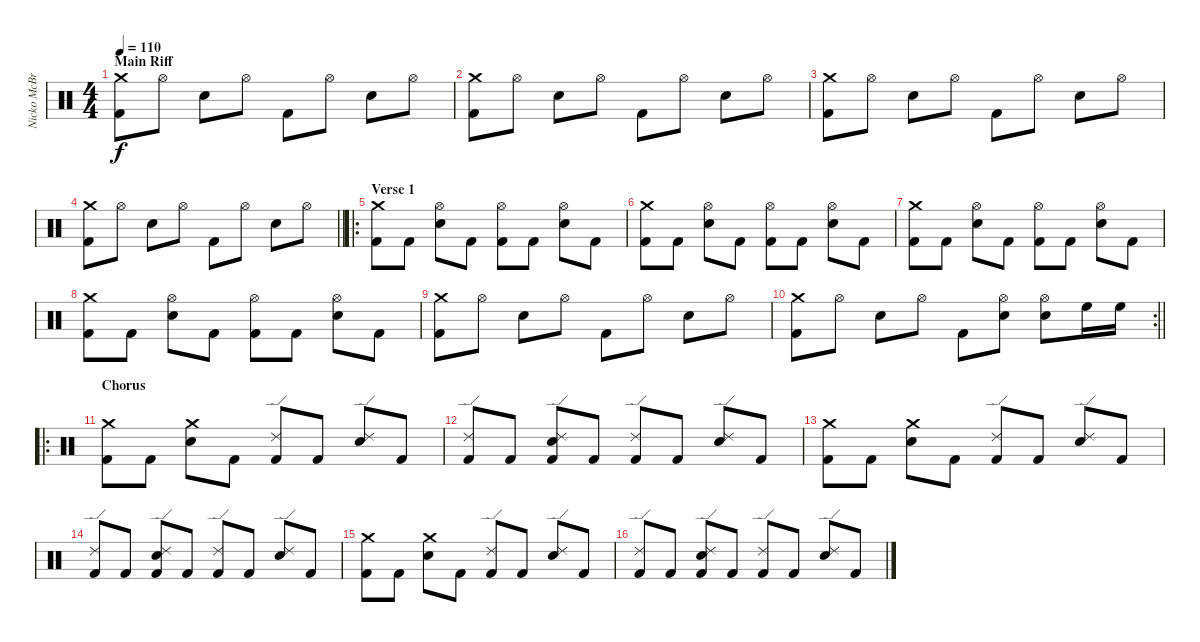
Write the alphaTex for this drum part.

\track ("Nicko McBrain" "Nicko McBr") {instrument percussion}
\staff {score}
\articulation defaults
\ts (4 4)
\section ("" "Main Riff")
\tempo 110
\clef neutral
\ks c
("Crash medium (hit)" "Kick (hit) 2").8{dy f} "Hi-Hat (open)".8 "Snare (hit) 2".8 "Hi-Hat (open)".8 "Kick (hit) 2".8 "Hi-Hat (open)".8 "Snare (hit) 2".8 "Hi-Hat (open)".8 |
("Crash medium (hit)" "Kick (hit) 2").8 "Hi-Hat (open)".8 "Snare (hit) 2".8 "Hi-Hat (open)".8 "Kick (hit) 2".8 "Hi-Hat (open)".8 "Snare (hit) 2".8 "Hi-Hat (open)".8 |
("Crash medium (hit)" "Kick (hit) 2").8 "Hi-Hat (open)".8 "Snare (hit) 2".8 "Hi-Hat (open)".8 "Kick (hit) 2".8 "Hi-Hat (open)".8 "Snare (hit) 2".8 "Hi-Hat (open)".8 |
\barLineRight lightlight
("Crash medium (hit)" "Kick (hit) 2").8 "Hi-Hat (open)".8 "Snare (hit) 2".8 "Hi-Hat (open)".8 "Kick (hit) 2".8 "Hi-Hat (open)".8 "Snare (hit) 2".8 "Hi-Hat (open)".8 |
\ro
\section ("" "Verse 1")
("Crash medium (hit)" "Kick (hit) 2").8 "Kick (hit) 2".8 ("Snare (hit) 2" "Hi-Hat (open)").8 "Kick (hit) 2".8 ("Hi-Hat (open)" "Kick (hit) 2").8 "Kick (hit) 2".8 ("Snare (hit) 2" "Hi-Hat (open)").8 "Kick (hit) 2".8 |
("Crash medium (hit)" "Kick (hit) 2").8 "Kick (hit) 2".8 ("Snare (hit) 2" "Hi-Hat (open)").8 "Kick (hit) 2".8 ("Hi-Hat (open)" "Kick (hit) 2").8 "Kick (hit) 2".8 ("Snare (hit) 2" "Hi-Hat (open)").8 "Kick (hit) 2".8 |
("Crash medium (hit)" "Kick (hit) 2").8 "Kick (hit) 2".8 ("Snare (hit) 2" "Hi-Hat (open)").8 "Kick (hit) 2".8 ("Hi-Hat (open)" "Kick (hit) 2").8 "Kick (hit) 2".8 ("Snare (hit) 2" "Hi-Hat (open)").8 "Kick (hit) 2".8 |
("Crash medium (hit)" "Kick (hit) 2").8 "Kick (hit) 2".8 ("Snare (hit) 2" "Hi-Hat (open)").8 "Kick (hit) 2".8 ("Hi-Hat (open)" "Kick (hit) 2").8 "Kick (hit) 2".8 ("Snare (hit) 2" "Hi-Hat (open)").8 "Kick (hit) 2".8 |
("Crash medium (hit)" "Kick (hit) 2").8 "Hi-Hat (open)".8 "Snare (hit) 2".8 "Hi-Hat (open)".8 "Kick (hit) 2".8 "Hi-Hat (open)".8 "Snare (hit) 2".8 "Hi-Hat (open)".8 |
\rc 2
\barLineRight lightlight
("Crash medium (hit)" "Kick (hit) 2").8 "Hi-Hat (open)".8 "Snare (hit) 2".8 "Hi-Hat (open)".8 "Kick (hit) 2".8 ("Snare (hit) 2" "Hi-Hat (open)").8 ("Snare (hit) 2" "Hi-Hat (open)").8 "High Floor Tom (hit)".16 "High Floor Tom (hit)".16 |
\ro
\section ("" "Chorus")
("Crash medium (hit)" "Kick (hit) 2").8 "Kick (hit) 2".8 ("Snare (hit) 2" "Crash medium (hit)").8 "Kick (hit) 2".8 ("Ride (edge) 2" "Kick (hit) 2").8 "Kick (hit) 2".8 ("Snare (hit) 2" "Ride (edge) 2").8 "Kick (hit) 2".8 |
("Ride (edge) 2" "Kick (hit) 2").8 "Kick (hit) 2".8 ("Snare (hit) 2" "Ride (edge) 2" "Kick (hit) 2").8 "Kick (hit) 2".8 ("Ride (edge) 2" "Kick (hit) 2").8 "Kick (hit) 2".8 ("Snare (hit) 2" "Ride (edge) 2").8 "Kick (hit) 2".8 |
("Crash medium (hit)" "Kick (hit) 2").8 "Kick (hit) 2".8 ("Snare (hit) 2" "Crash medium (hit)").8 "Kick (hit) 2".8 ("Ride (edge) 2" "Kick (hit) 2").8 "Kick (hit) 2".8 ("Snare (hit) 2" "Ride (edge) 2").8 "Kick (hit) 2".8 |
("Ride (edge) 2" "Kick (hit) 2").8 "Kick (hit) 2".8 ("Snare (hit) 2" "Ride (edge) 2" "Kick (hit) 2").8 "Kick (hit) 2".8 ("Ride (edge) 2" "Kick (hit) 2").8 "Kick (hit) 2".8 ("Snare (hit) 2" "Ride (edge) 2").8 "Kick (hit) 2".8 |
("Crash medium (hit)" "Kick (hit) 2").8 "Kick (hit) 2".8 ("Snare (hit) 2" "Crash medium (hit)").8 "Kick (hit) 2".8 ("Ride (edge) 2" "Kick (hit) 2").8 "Kick (hit) 2".8 ("Snare (hit) 2" "Ride (edge) 2").8 "Kick (hit) 2".8 |
("Ride (edge) 2" "Kick (hit) 2").8 "Kick (hit) 2".8 ("Snare (hit) 2" "Ride (edge) 2" "Kick (hit) 2").8 "Kick (hit) 2".8 ("Ride (edge) 2" "Kick (hit) 2").8 "Kick (hit) 2".8 ("Snare (hit) 2" "Ride (edge) 2").8 "Kick (hit) 2".8
